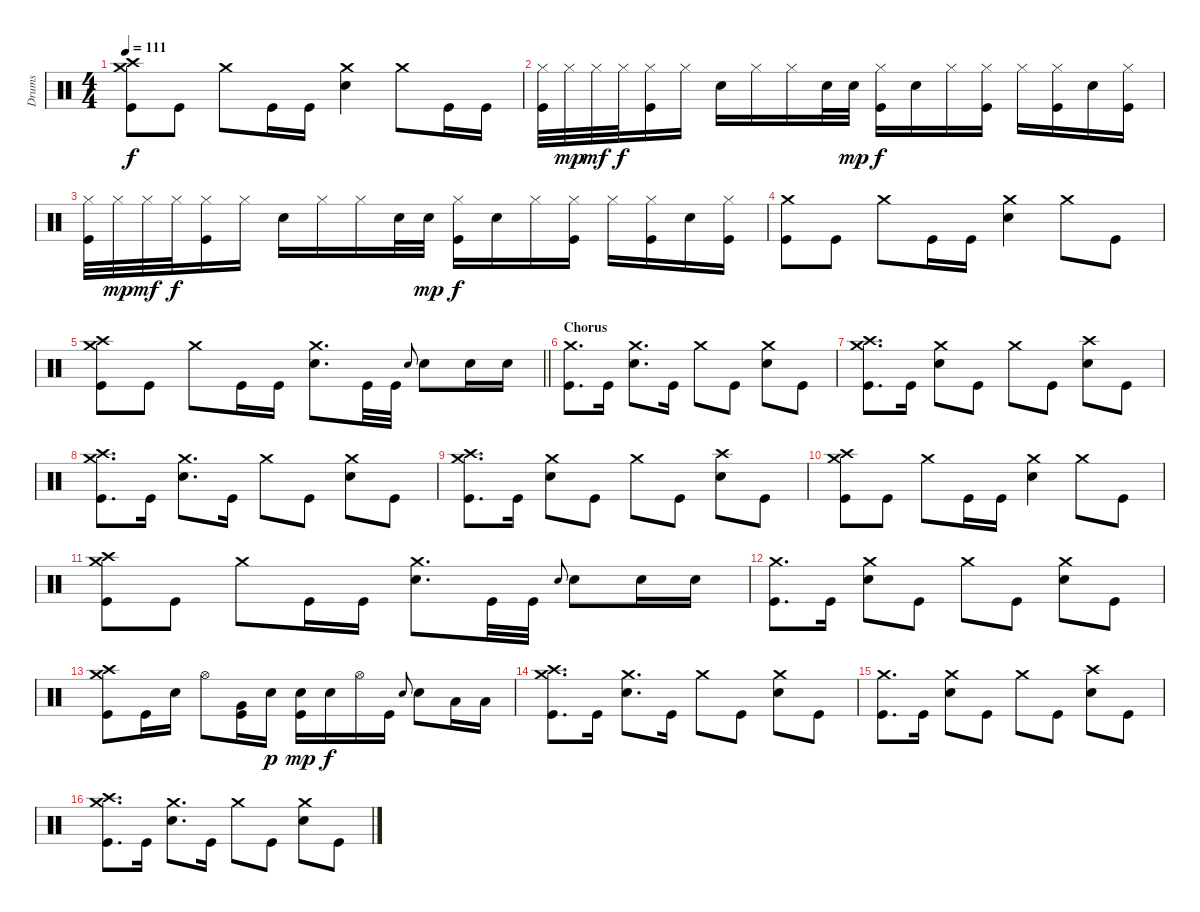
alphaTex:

\track ("Drums" "Drums") {instrument percussion}
\staff {score}
\articulation defaults
\ts (4 4)
\tempo 111
\clef neutral
\ks c
("Crash medium (hit)" "Crash high (hit)" "Kick (hit)").8{dy f} "Kick (hit)".8 "Crash medium (hit)".8 "Kick (hit)".16 "Kick (hit)".16 ("Crash medium (hit)" "Electric Snare (hit)").4 "Crash medium (hit)".8 "Kick (hit)".16 "Kick (hit)".16 |
("Hi-Hat (closed)" "Kick (hit)").32 "Hi-Hat (closed)".32{dy mp} "Hi-Hat (closed)".32{dy mf} "Hi-Hat (closed)".32{dy f} ("Hi-Hat (closed)" "Kick (hit)").16 "Hi-Hat (closed)".16 "Electric Snare (hit)".16 "Hi-Hat (closed)".16 "Hi-Hat (closed)".16 "Electric Snare (hit)".32 "Electric Snare (hit)".32{dy mp} ("Hi-Hat (closed)" "Kick (hit)").16{dy f} "Electric Snare (hit)".16 "Hi-Hat (closed)".16 ("Hi-Hat (closed)" "Kick (hit)").16 "Hi-Hat (closed)".16 ("Hi-Hat (closed)" "Kick (hit)").16 "Electric Snare (hit)".16 ("Hi-Hat (closed)" "Kick (hit)").16 |
("Hi-Hat (closed)" "Kick (hit)").32 "Hi-Hat (closed)".32{dy mp} "Hi-Hat (closed)".32{dy mf} "Hi-Hat (closed)".32{dy f} ("Hi-Hat (closed)" "Kick (hit)").16 "Hi-Hat (closed)".16 "Electric Snare (hit)".16 "Hi-Hat (closed)".16 "Hi-Hat (closed)".16 "Electric Snare (hit)".32 "Electric Snare (hit)".32{dy mp} ("Hi-Hat (closed)" "Kick (hit)").16{dy f} "Electric Snare (hit)".16 "Hi-Hat (closed)".16 ("Hi-Hat (closed)" "Kick (hit)").16 "Hi-Hat (closed)".16 ("Hi-Hat (closed)" "Kick (hit)").16 "Electric Snare (hit)".16 ("Hi-Hat (closed)" "Kick (hit)").16 |
("Crash medium (hit)" "Kick (hit)").8 "Kick (hit)".8 "Crash medium (hit)".8 "Kick (hit)".16 "Kick (hit)".16 ("Crash medium (hit)" "Electric Snare (hit)").4 "Crash medium (hit)".8 "Kick (hit)".8 |
\barLineRight lightlight
("Crash medium (hit)" "Crash high (hit)" "Kick (hit)").8 "Kick (hit)".8 "Crash medium (hit)".8 "Kick (hit)".16 "Kick (hit)".16 ("Crash medium (hit)" "Electric Snare (hit)").8{d} "Kick (hit)".32 "Kick (hit)".32 "Electric Snare (hit)".8{gr onbeat} "Electric Snare (hit)".8 "Electric Snare (hit)".16 "Electric Snare (hit)".16 |
\section ("" "Chorus")
("Crash medium (hit)" "Kick (hit)").8{d} "Kick (hit)".16 ("Crash medium (hit)" "Electric Snare (hit)").8{d} "Kick (hit)".16 "Crash medium (hit)".8 "Kick (hit)".8 ("Crash medium (hit)" "Electric Snare (hit)").8 "Kick (hit)".8 |
("Crash medium (hit)" "Crash high (hit)" "Kick (hit)").8{d} "Kick (hit)".16 ("Crash medium (hit)" "Electric Snare (hit)").8 "Kick (hit)".8 "Crash medium (hit)".8 "Kick (hit)".8 ("Crash high (hit)" "Electric Snare (hit)").8 "Kick (hit)".8 |
("Crash medium (hit)" "Crash high (hit)" "Kick (hit)").8{d} "Kick (hit)".16 ("Crash medium (hit)" "Electric Snare (hit)").8{d} "Kick (hit)".16 "Crash medium (hit)".8 "Kick (hit)".8 ("Crash medium (hit)" "Electric Snare (hit)").8 "Kick (hit)".8 |
("Crash medium (hit)" "Crash high (hit)" "Kick (hit)").8{d} "Kick (hit)".16 ("Crash medium (hit)" "Electric Snare (hit)").8 "Kick (hit)".8 "Crash medium (hit)".8 "Kick (hit)".8 ("Crash high (hit)" "Electric Snare (hit)").8 "Kick (hit)".8 |
("Crash medium (hit)" "Crash high (hit)" "Kick (hit)").8 "Kick (hit)".8 "Crash medium (hit)".8 "Kick (hit)".16 "Kick (hit)".16 ("Crash medium (hit)" "Electric Snare (hit)").4 "Crash medium (hit)".8 "Kick (hit)".8 |
("Crash medium (hit)" "Crash high (hit)" "Kick (hit)").8 "Kick (hit)".8 "Crash medium (hit)".8 "Kick (hit)".16 "Kick (hit)".16 ("Crash medium (hit)" "Electric Snare (hit)").8{d} "Kick (hit)".32 "Kick (hit)".32 "Electric Snare (hit)".8{gr onbeat} "Electric Snare (hit)".8 "Electric Snare (hit)".16 "Electric Snare (hit)".16 |
("Crash medium (hit)" "Kick (hit)").8{d} "Kick (hit)".16 ("Crash medium (hit)" "Electric Snare (hit)").8 "Kick (hit)".8 "Crash medium (hit)".8 "Kick (hit)".8 ("Crash medium (hit)" "Electric Snare (hit)").8 "Kick (hit)".8 |
("Crash medium (hit)" "Crash high (hit)" "Kick (hit)").8 "Kick (hit)".16 "Electric Snare (hit)".16 "Hi-Hat (open)".8 ("Very Low Tom (hit)" "Kick (hit)").16 "Electric Snare (hit)".16{dy p} ("Electric Snare (hit)" "Kick (hit)").16{dy mp} "Electric Snare (hit)".16{dy f} "Hi-Hat (open)".16 "Kick (hit)".16 "Electric Snare (hit)".8{gr onbeat} "Electric Snare (hit)".8 "Low Floor Tom (hit)".16 "Low Floor Tom (hit)".16 |
("Crash medium (hit)" "Crash high (hit)" "Kick (hit)").8{d} "Kick (hit)".16 ("Crash medium (hit)" "Electric Snare (hit)").8{d} "Kick (hit)".16 "Crash medium (hit)".8 "Kick (hit)".8 ("Crash medium (hit)" "Electric Snare (hit)").8 "Kick (hit)".8 |
("Crash medium (hit)" "Kick (hit)").8{d} "Kick (hit)".16 ("Crash medium (hit)" "Electric Snare (hit)").8 "Kick (hit)".8 "Crash medium (hit)".8 "Kick (hit)".8 ("Crash high (hit)" "Electric Snare (hit)").8 "Kick (hit)".8 |
("Crash medium (hit)" "Crash high (hit)" "Kick (hit)").8{d} "Kick (hit)".16 ("Crash medium (hit)" "Electric Snare (hit)").8{d} "Kick (hit)".16 "Crash medium (hit)".8 "Kick (hit)".8 ("Crash medium (hit)" "Electric Snare (hit)").8 "Kick (hit)".8
